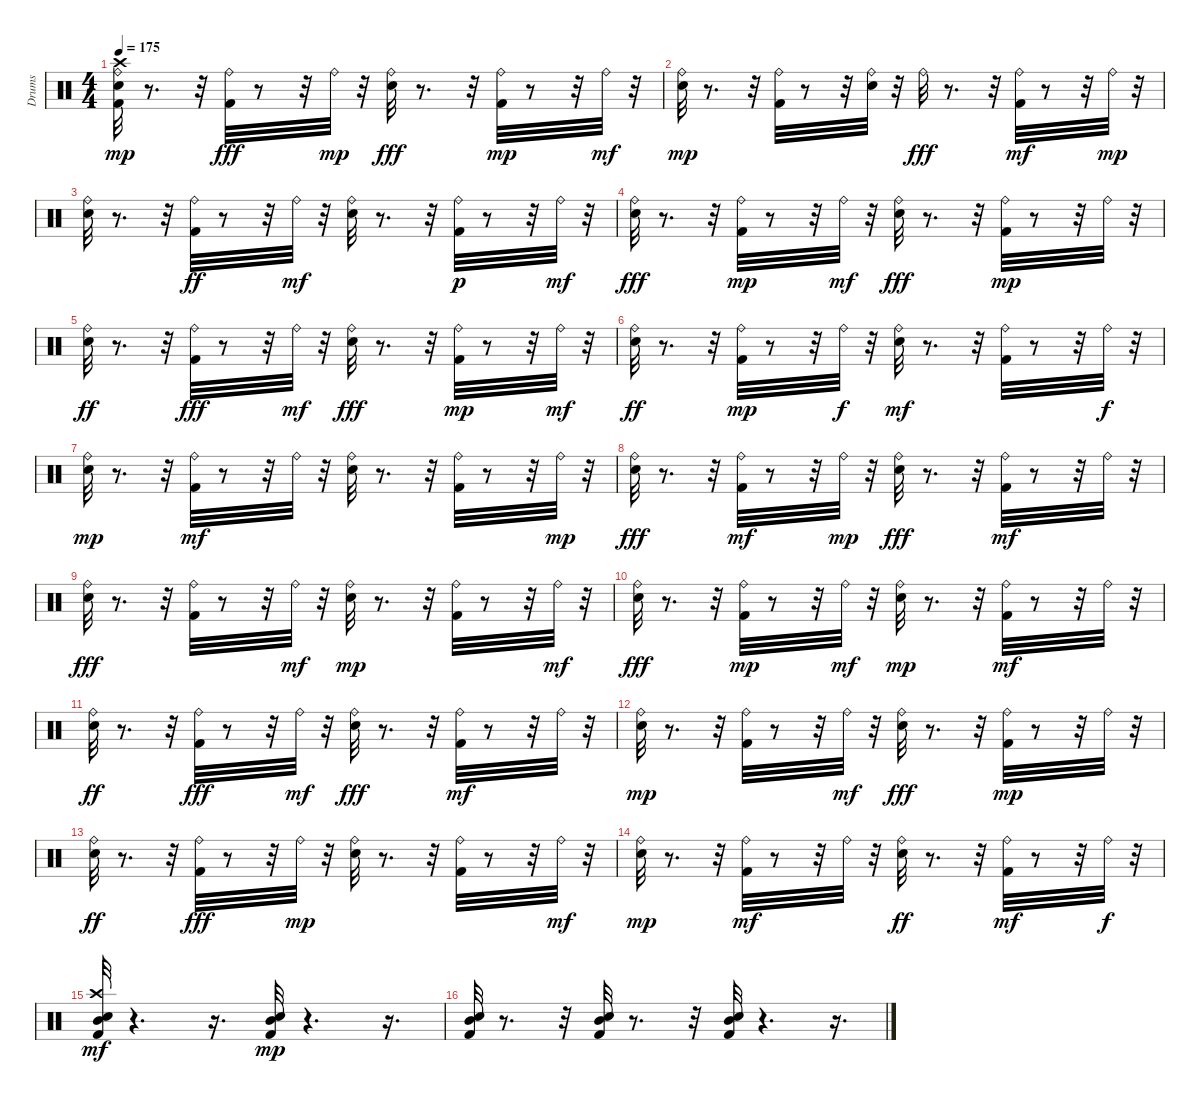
\track ("Drums" "Drums") {instrument percussion}
\staff {score}
\articulation defaults
\ts (4 4)
\tempo 175
\clef neutral
\ks c
("Kick (hit) 2" "Ride (bell)" "Snare (hit) 2" "Crash high (hit)").32{dy mp} r.8{d} r.32 ("Kick (hit) 2" "Ride (bell)").32{dy fff} r.8 r.32 "Ride (bell)".32{dy mp} r.32 ("Snare (hit) 2" "Ride (bell)").32{dy fff} r.8{d} r.32 ("Kick (hit) 2" "Ride (bell)").32{dy mp} r.8 r.32 "Ride (bell)".32{dy mf} r.32 |
("Ride (bell)" "Snare (hit) 2").32{dy mp} r.8{d} r.32 ("Kick (hit) 2" "Ride (bell)").32 r.8 r.32 ("Ride (bell)" "Snare (hit) 2").32 r.32 "Ride (bell)".32{dy fff} r.8{d} r.32 ("Kick (hit) 2" "Ride (bell)").32{dy mf} r.8 r.32 "Ride (bell)".32{dy mp} r.32 |
("Ride (bell)" "Snare (hit) 2").32 r.8{d} r.32 ("Ride (bell)" "Kick (hit) 2").32{dy ff} r.8 r.32 "Ride (bell)".32{dy mf} r.32 ("Ride (bell)" "Snare (hit) 2").32 r.8{d} r.32 ("Ride (bell)" "Kick (hit) 2").32{dy p} r.8 r.32 "Ride (bell)".32{dy mf} r.32 |
("Snare (hit) 2" "Ride (bell)").32{dy fff} r.8{d} r.32 ("Ride (bell)" "Kick (hit) 2").32{dy mp} r.8 r.32 "Ride (bell)".32{dy mf} r.32 ("Snare (hit) 2" "Ride (bell)").32{dy fff} r.8{d} r.32 ("Kick (hit) 2" "Ride (bell)").32{dy mp} r.8 r.32 "Ride (bell)".32 r.32 |
("Snare (hit) 2" "Ride (bell)").32{dy ff} r.8{d} r.32 ("Kick (hit) 2" "Ride (bell)").32{dy fff} r.8 r.32 "Ride (bell)".32{dy mf} r.32 ("Snare (hit) 2" "Ride (bell)").32{dy fff} r.8{d} r.32 ("Ride (bell)" "Kick (hit) 2").32{dy mp} r.8 r.32 "Ride (bell)".32{dy mf} r.32 |
("Snare (hit) 2" "Ride (bell)").32{dy ff} r.8{d} r.32 ("Ride (bell)" "Kick (hit) 2").32{dy mp} r.8 r.32 "Ride (bell)".32{dy f} r.32 ("Ride (bell)" "Snare (hit) 2").32{dy mf} r.8{d} r.32 ("Kick (hit) 2" "Ride (bell)").32 r.8 r.32 "Ride (bell)".32{dy f} r.32 |
("Ride (bell)" "Snare (hit) 2").32{dy mp} r.8{d} r.32 ("Ride (bell)" "Kick (hit) 2").32{dy mf} r.8 r.32 "Ride (bell)".32 r.32 ("Ride (bell)" "Snare (hit) 2").32 r.8{d} r.32 ("Ride (bell)" "Kick (hit) 2").32 r.8 r.32 "Ride (bell)".32{dy mp} r.32 |
("Snare (hit) 2" "Ride (bell)").32{dy fff} r.8{d} r.32 ("Kick (hit) 2" "Ride (bell)").32{dy mf} r.8 r.32 "Ride (bell)".32{dy mp} r.32 ("Snare (hit) 2" "Ride (bell)").32{dy fff} r.8{d} r.32 ("Kick (hit) 2" "Ride (bell)").32{dy mf} r.8 r.32 "Ride (bell)".32 r.32 |
("Snare (hit) 2" "Ride (bell)").32{dy fff} r.8{d} r.32 ("Kick (hit) 2" "Ride (bell)").32 r.8 r.32 "Ride (bell)".32{dy mf} r.32 ("Ride (bell)" "Snare (hit) 2").32{dy mp} r.8{d} r.32 ("Ride (bell)" "Kick (hit) 2").32 r.8 r.32 "Ride (bell)".32{dy mf} r.32 |
("Snare (hit) 2" "Ride (bell)").32{dy fff} r.8{d} r.32 ("Kick (hit) 2" "Ride (bell)").32{dy mp} r.8 r.32 "Ride (bell)".32{dy mf} r.32 ("Ride (bell)" "Snare (hit) 2").32{dy mp} r.8{d} r.32 ("Ride (bell)" "Kick (hit) 2").32{dy mf} r.8 r.32 "Ride (bell)".32 r.32 |
("Snare (hit) 2" "Ride (bell)").32{dy ff} r.8{d} r.32 ("Kick (hit) 2" "Ride (bell)").32{dy fff} r.8 r.32 "Ride (bell)".32{dy mf} r.32 ("Snare (hit) 2" "Ride (bell)").32{dy fff} r.8{d} r.32 ("Ride (bell)" "Kick (hit) 2").32{dy mf} r.8 r.32 "Ride (bell)".32 r.32 |
("Ride (bell)" "Snare (hit) 2").32{dy mp} r.8{d} r.32 ("Kick (hit) 2" "Ride (bell)").32 r.8 r.32 "Ride (bell)".32{dy mf} r.32 ("Snare (hit) 2" "Ride (bell)").32{dy fff} r.8{d} r.32 ("Kick (hit) 2" "Ride (bell)").32{dy mp} r.8 r.32 "Ride (bell)".32 r.32 |
("Snare (hit) 2" "Ride (bell)").32{dy ff} r.8{d} r.32 ("Kick (hit) 2" "Ride (bell)").32{dy fff} r.8 r.32 "Ride (bell)".32{dy mp} r.32 ("Ride (bell)" "Snare (hit) 2").32 r.8{d} r.32 ("Kick (hit) 2" "Ride (bell)").32 r.8 r.32 "Ride (bell)".32{dy mf} r.32 |
("Ride (bell)" "Snare (hit) 2").32{dy mp} r.8{d} r.32 ("Ride (bell)" "Kick (hit) 2").32{dy mf} r.8 r.32 "Ride (bell)".32 r.32 ("Snare (hit) 2" "Ride (bell)").32{dy ff} r.8{d} r.32 ("Kick (hit) 2" "Ride (bell)").32{dy mf} r.8 r.32 "Ride (bell)".32{dy f} r.32 |
("Crash high (hit)" "Mid Tom (hit)" "Kick (hit) 2" "Snare (hit) 2").32{dy mf} r.4{d} r.16{d} ("Kick (hit) 2" "Mid Tom (hit)" "Snare (hit) 2").32{dy mp} r.4{d} r.16{d} |
("Snare (hit) 2" "Kick (hit) 2" "Mid Tom (hit)").32 r.8{d} r.32 ("Mid Tom (hit)" "Kick (hit) 2" "Snare (hit) 2").32 r.8{d} r.32 ("Kick (hit) 2" "Mid Tom (hit)" "Snare (hit) 2").32 r.4{d} r.16{d}
